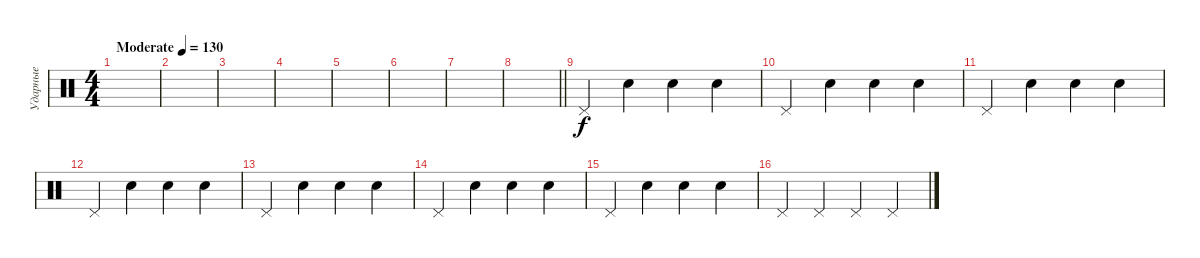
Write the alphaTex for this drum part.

\track ("Ударные" "Ударные") {instrument percussion}
\staff {score}
\articulation defaults
\ts (4 4)
\tempo (130 "Moderate")
\clef neutral
\ks c
|
|
|
|
|
|
|
\barLineRight lightlight
|
"Pedal Hi-Hat (hit)".4 "Snare (hit)".4 "Snare (hit)".4 "Snare (hit)".4 |
"Pedal Hi-Hat (hit)".4 "Snare (hit)".4 "Snare (hit)".4 "Snare (hit)".4 |
"Pedal Hi-Hat (hit)".4 "Snare (hit)".4 "Snare (hit)".4 "Snare (hit)".4 |
"Pedal Hi-Hat (hit)".4 "Snare (hit)".4 "Snare (hit)".4 "Snare (hit)".4 |
"Pedal Hi-Hat (hit)".4 "Snare (hit)".4 "Snare (hit)".4 "Snare (hit)".4 |
"Pedal Hi-Hat (hit)".4 "Snare (hit)".4 "Snare (hit)".4 "Snare (hit)".4 |
"Pedal Hi-Hat (hit)".4 "Snare (hit)".4 "Snare (hit)".4 "Snare (hit)".4 |
"Pedal Hi-Hat (hit)".4 "Pedal Hi-Hat (hit)".4 "Pedal Hi-Hat (hit)".4 "Pedal Hi-Hat (hit)".4
